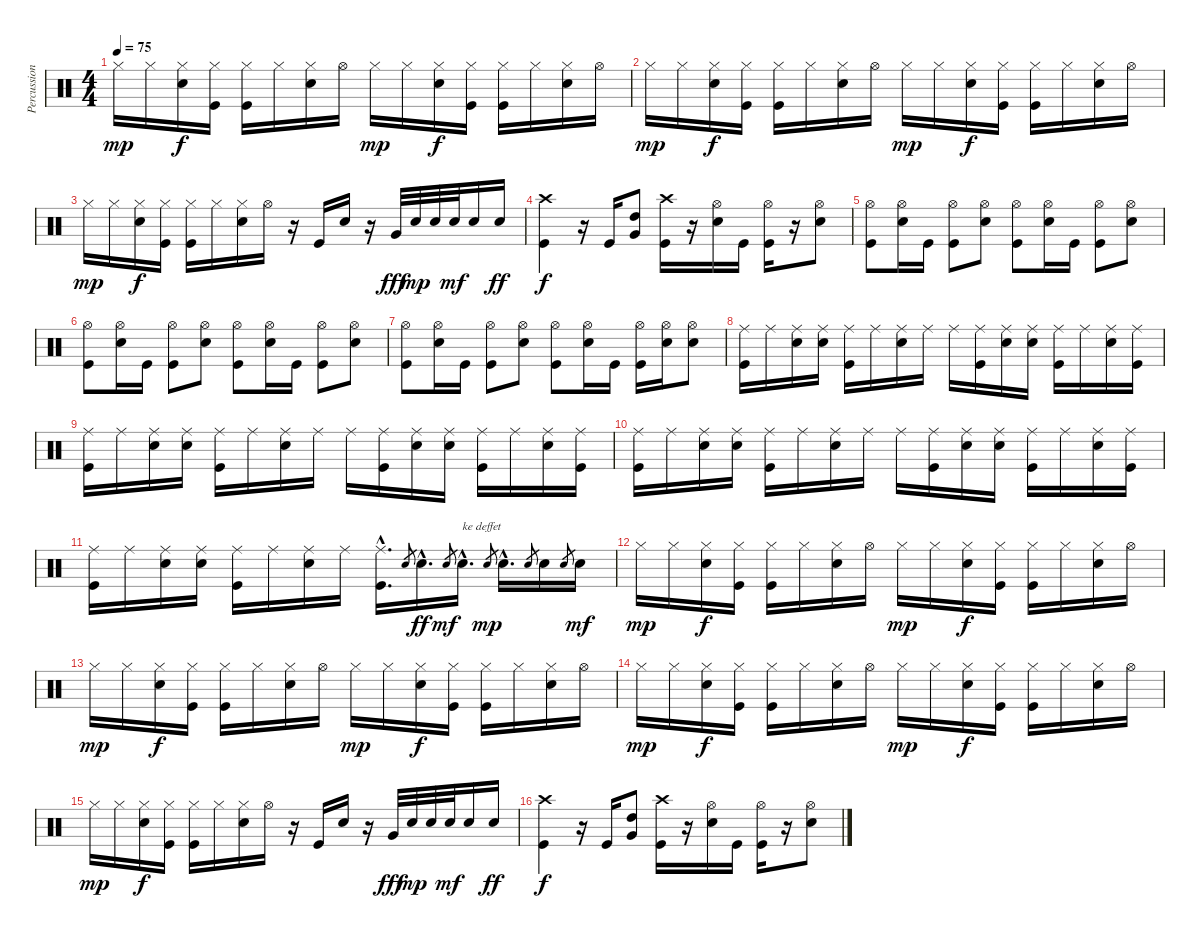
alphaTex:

\track ("Percussions" "Percussion") {instrument percussion}
\staff {score}
\articulation defaults
\ts (4 4)
\tempo 75
\clef neutral
\ks c "Hi-Hat (closed)".16{dy mp} "Hi-Hat (closed)".16
("Hi-Hat (closed)" "Snare (hit) 2").16{dy f} ("Hi-Hat (closed)" "Kick (hit)").16 ("Hi-Hat (closed)" "Kick (hit)").16 "Hi-Hat (closed)".16 ("Hi-Hat (closed)" "Snare (hit) 2").16 "Hi-Hat (open)".16 "Hi-Hat (closed)".16{dy mp} "Hi-Hat (closed)".16 ("Hi-Hat (closed)" "Snare (hit) 2").16{dy f} ("Hi-Hat (closed)" "Kick (hit)").16 ("Hi-Hat (closed)" "Kick (hit)").16 "Hi-Hat (closed)".16 ("Hi-Hat (closed)" "Snare (hit) 2").16 "Hi-Hat (open)".16 |
"Hi-Hat (closed)".16{dy mp} "Hi-Hat (closed)".16 ("Hi-Hat (closed)" "Snare (hit) 2").16{dy f} ("Hi-Hat (closed)" "Kick (hit)").16 ("Hi-Hat (closed)" "Kick (hit)").16 "Hi-Hat (closed)".16 ("Hi-Hat (closed)" "Snare (hit) 2").16 "Hi-Hat (open)".16 "Hi-Hat (closed)".16{dy mp} "Hi-Hat (closed)".16 ("Hi-Hat (closed)" "Snare (hit) 2").16{dy f} ("Hi-Hat (closed)" "Kick (hit)").16 ("Hi-Hat (closed)" "Kick (hit)").16 "Hi-Hat (closed)".16 ("Hi-Hat (closed)" "Snare (hit) 2").16 "Hi-Hat (open)".16 |
"Hi-Hat (closed)".16{dy mp} "Hi-Hat (closed)".16 ("Hi-Hat (closed)" "Snare (hit) 2").16{dy f} ("Hi-Hat (closed)" "Kick (hit)").16 ("Hi-Hat (closed)" "Kick (hit)").16 "Hi-Hat (closed)".16 ("Hi-Hat (closed)" "Snare (hit) 2").16 "Hi-Hat (open)".16 r.16 "Kick (hit)".16 "Snare (hit) 2".16 r.16 "Very Low Tom (hit)".32{dy fff} "Snare (hit) 2".32{dy mp} "Snare (hit) 2".32 "Snare (hit) 2".32{dy mf} "Snare (hit) 2".16 "Snare (hit) 2".16{dy ff} |
("Crash high (hit)" "Kick (hit)").4{dy f} r.16 "Kick (hit)".16 ("High Tom (hit)" "Very Low Tom (hit)").8 ("Crash high (hit)" "Kick (hit)").16 r.16 ("Hi-Hat (open)" "Snare (hit) 2").16 "Kick (hit)".16 ("Hi-Hat (open)" "Kick (hit)").16 r.16 ("Hi-Hat (open)" "Snare (hit) 2").8 |
("Hi-Hat (open)" "Kick (hit)").8 ("Hi-Hat (open)" "Snare (hit) 2").16 "Kick (hit)".16 ("Hi-Hat (open)" "Kick (hit)").8 ("Hi-Hat (open)" "Snare (hit) 2").8 ("Hi-Hat (open)" "Kick (hit)").8 ("Hi-Hat (open)" "Snare (hit) 2").16 "Kick (hit)".16 ("Hi-Hat (open)" "Kick (hit)").8 ("Hi-Hat (open)" "Snare (hit) 2").8 |
("Hi-Hat (open)" "Kick (hit)").8 ("Hi-Hat (open)" "Snare (hit) 2").16 "Kick (hit)".16 ("Hi-Hat (open)" "Kick (hit)").8 ("Hi-Hat (open)" "Snare (hit) 2").8 ("Hi-Hat (open)" "Kick (hit)").8 ("Hi-Hat (open)" "Snare (hit) 2").16 "Kick (hit)".16 ("Hi-Hat (open)" "Kick (hit)").8 ("Hi-Hat (open)" "Snare (hit) 2").8 |
("Hi-Hat (open)" "Kick (hit)").8 ("Hi-Hat (open)" "Snare (hit) 2").16 "Kick (hit)".16 ("Hi-Hat (open)" "Kick (hit)").8 ("Hi-Hat (open)" "Snare (hit) 2").8 ("Hi-Hat (open)" "Kick (hit)").8 ("Hi-Hat (open)" "Snare (hit) 2").16 "Kick (hit)".16 ("Hi-Hat (open)" "Kick (hit)").16 ("Hi-Hat (open)" "Snare (hit) 2").16 ("Hi-Hat (open)" "Snare (hit) 2").8 |
("Ride (middle)" "Kick (hit)").16 "Ride (middle)".16 ("Ride (middle)" "Snare (hit) 2").16 ("Ride (middle)" "Snare (hit) 2").16 ("Ride (middle)" "Kick (hit)").16 "Ride (middle)".16 ("Ride (middle)" "Snare (hit) 2").16 "Ride (middle)".16 "Ride (middle)".16 ("Ride (middle)" "Kick (hit)").16 ("Ride (middle)" "Snare (hit) 2").16 ("Ride (middle)" "Snare (hit) 2").16 ("Ride (middle)" "Kick (hit)").16 "Ride (middle)".16 ("Ride (middle)" "Snare (hit) 2").16 ("Ride (middle)" "Kick (hit)").16 |
("Ride (middle)" "Kick (hit)").16 "Ride (middle)".16 ("Ride (middle)" "Snare (hit) 2").16 ("Ride (middle)" "Snare (hit) 2").16 ("Ride (middle)" "Kick (hit)").16 "Ride (middle)".16 ("Ride (middle)" "Snare (hit) 2").16 "Ride (middle)".16 "Ride (middle)".16 ("Ride (middle)" "Kick (hit)").16 ("Ride (middle)" "Snare (hit) 2").16 ("Ride (middle)" "Snare (hit) 2").16 ("Ride (middle)" "Kick (hit)").16 "Ride (middle)".16 ("Ride (middle)" "Snare (hit) 2").16 ("Ride (middle)" "Kick (hit)").16 |
("Ride (middle)" "Kick (hit)").16 "Ride (middle)".16 ("Ride (middle)" "Snare (hit) 2").16 ("Ride (middle)" "Snare (hit) 2").16 ("Ride (middle)" "Kick (hit)").16 "Ride (middle)".16 ("Ride (middle)" "Snare (hit) 2").16 "Ride (middle)".16 "Ride (middle)".16 ("Ride (middle)" "Kick (hit)").16 ("Ride (middle)" "Snare (hit) 2").16 ("Ride (middle)" "Snare (hit) 2").16 ("Ride (middle)" "Kick (hit)").16 "Ride (middle)".16 ("Ride (middle)" "Snare (hit) 2").16 ("Ride (middle)" "Kick (hit)").16 |
("Ride (middle)" "Kick (hit)").16 "Ride (middle)".16 ("Ride (middle)" "Snare (hit) 2").16 ("Ride (middle)" "Snare (hit) 2").16 ("Ride (middle)" "Kick (hit)").16 "Ride (middle)".16 ("Ride (middle)" "Snare (hit) 2").16 "Ride (middle)".16 ("Ride (middle)"{hac} "Kick (hit)"{hac}).16{d} "Snare (hit) 2".8{gr} "Snare (hit) 2"{hac}.16{d dy ff} "Snare (hit) 2".8{gr dy mf} "Snare (hit) 2"{hac}.16{d txt "ke deffet"} "Snare (hit) 2".8{gr dy mp} "Snare (hit) 2"{hac}.16{d} "Snare (hit) 2".8{gr} "Snare (hit) 2".16 "Snare (hit) 2".8{gr} "Snare (hit) 2".16{dy mf} |
"Hi-Hat (closed)".16{dy mp} "Hi-Hat (closed)".16 ("Hi-Hat (closed)" "Snare (hit) 2").16{dy f} ("Hi-Hat (closed)" "Kick (hit)").16 ("Hi-Hat (closed)" "Kick (hit)").16 "Hi-Hat (closed)".16 ("Hi-Hat (closed)" "Snare (hit) 2").16 "Hi-Hat (open)".16 "Hi-Hat (closed)".16{dy mp} "Hi-Hat (closed)".16 ("Hi-Hat (closed)" "Snare (hit) 2").16{dy f} ("Hi-Hat (closed)" "Kick (hit)").16 ("Hi-Hat (closed)" "Kick (hit)").16 "Hi-Hat (closed)".16 ("Hi-Hat (closed)" "Snare (hit) 2").16 "Hi-Hat (open)".16 |
"Hi-Hat (closed)".16{dy mp} "Hi-Hat (closed)".16 ("Hi-Hat (closed)" "Snare (hit) 2").16{dy f} ("Hi-Hat (closed)" "Kick (hit)").16 ("Hi-Hat (closed)" "Kick (hit)").16 "Hi-Hat (closed)".16 ("Hi-Hat (closed)" "Snare (hit) 2").16 "Hi-Hat (open)".16 "Hi-Hat (closed)".16{dy mp} "Hi-Hat (closed)".16 ("Hi-Hat (closed)" "Snare (hit) 2").16{dy f} ("Hi-Hat (closed)" "Kick (hit)").16 ("Hi-Hat (closed)" "Kick (hit)").16 "Hi-Hat (closed)".16 ("Hi-Hat (closed)" "Snare (hit) 2").16 "Hi-Hat (open)".16 |
"Hi-Hat (closed)".16{dy mp} "Hi-Hat (closed)".16 ("Hi-Hat (closed)" "Snare (hit) 2").16{dy f} ("Hi-Hat (closed)" "Kick (hit)").16 ("Hi-Hat (closed)" "Kick (hit)").16 "Hi-Hat (closed)".16 ("Hi-Hat (closed)" "Snare (hit) 2").16 "Hi-Hat (open)".16 "Hi-Hat (closed)".16{dy mp} "Hi-Hat (closed)".16 ("Hi-Hat (closed)" "Snare (hit) 2").16{dy f} ("Hi-Hat (closed)" "Kick (hit)").16 ("Hi-Hat (closed)" "Kick (hit)").16 "Hi-Hat (closed)".16 ("Hi-Hat (closed)" "Snare (hit) 2").16 "Hi-Hat (open)".16 |
"Hi-Hat (closed)".16{dy mp} "Hi-Hat (closed)".16 ("Hi-Hat (closed)" "Snare (hit) 2").16{dy f} ("Hi-Hat (closed)" "Kick (hit)").16 ("Hi-Hat (closed)" "Kick (hit)").16 "Hi-Hat (closed)".16 ("Hi-Hat (closed)" "Snare (hit) 2").16 "Hi-Hat (open)".16 r.16 "Kick (hit)".16 "Snare (hit) 2".16 r.16 "Very Low Tom (hit)".32{dy fff} "Snare (hit) 2".32{dy mp} "Snare (hit) 2".32 "Snare (hit) 2".32{dy mf} "Snare (hit) 2".16 "Snare (hit) 2".16{dy ff} |
("Crash high (hit)" "Kick (hit)").4{dy f} r.16 "Kick (hit)".16 ("High Tom (hit)" "Very Low Tom (hit)").8 ("Crash high (hit)" "Kick (hit)").16 r.16 ("Hi-Hat (open)" "Snare (hit) 2").16 "Kick (hit)".16 ("Hi-Hat (open)" "Kick (hit)").16 r.16 ("Hi-Hat (open)" "Snare (hit) 2").8
